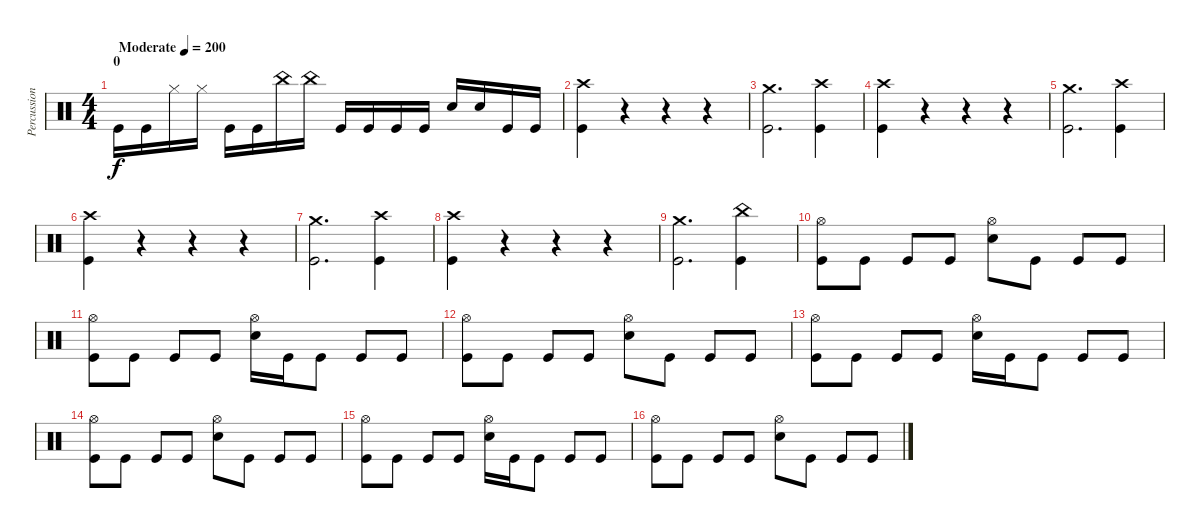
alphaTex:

\track ("Percussion" "Percussion") {instrument percussion}
\staff {score}
\articulation defaults
\ts (4 4)
\section ("" "0")
\tempo (200 "Moderate")
\clef neutral
\ks c "Kick (hit)".16{dy f} "Kick (hit)".16 "Hi-Hat (closed)".16 "Hi-Hat (closed)".16 "Kick (hit)".16 "Kick (hit)".16 "China (hit)".16 "China (hit)".16 "Kick (hit)".16 "Kick (hit)".16 "Kick (hit)".16 "Kick (hit)".16 "Snare (hit) 2".16 "Snare (hit) 2".16 "Kick (hit)".16 "Kick (hit)".16
|
("Crash high (hit)" "Kick (hit)").4 r.4 r.4 r.4 |
("Crash medium (hit)" "Kick (hit)").2{d} ("Crash high (hit)" "Kick (hit)").4 |
("Crash high (hit)" "Kick (hit)").4 r.4 r.4 r.4 |
("Crash medium (hit)" "Kick (hit)").2{d} ("Crash high (hit)" "Kick (hit)").4 |
("Crash high (hit)" "Kick (hit)").4 r.4 r.4 r.4 |
("Crash medium (hit)" "Kick (hit)").2{d} ("Crash high (hit)" "Kick (hit)").4 |
("Crash high (hit)" "Kick (hit)").4 r.4 r.4 r.4 |
("Crash medium (hit)" "Kick (hit)").2{d} ("China (hit)" "Kick (hit)").4 |
("Hi-Hat (open)" "Kick (hit)").8 "Kick (hit)".8 "Kick (hit)".8 "Kick (hit)".8 ("Hi-Hat (open)" "Snare (hit) 2").8 "Kick (hit)".8 "Kick (hit)".8 "Kick (hit)".8 |
("Hi-Hat (open)" "Kick (hit)").8 "Kick (hit)".8 "Kick (hit)".8 "Kick (hit)".8 ("Hi-Hat (open)" "Snare (hit) 2").16 "Kick (hit)".16 "Kick (hit)".8 "Kick (hit)".8 "Kick (hit)".8 |
("Hi-Hat (open)" "Kick (hit)").8 "Kick (hit)".8 "Kick (hit)".8 "Kick (hit)".8 ("Hi-Hat (open)" "Snare (hit) 2").8 "Kick (hit)".8 "Kick (hit)".8 "Kick (hit)".8 |
("Hi-Hat (open)" "Kick (hit)").8 "Kick (hit)".8 "Kick (hit)".8 "Kick (hit)".8 ("Hi-Hat (open)" "Snare (hit) 2").16 "Kick (hit)".16 "Kick (hit)".8 "Kick (hit)".8 "Kick (hit)".8 |
("Hi-Hat (open)" "Kick (hit)").8 "Kick (hit)".8 "Kick (hit)".8 "Kick (hit)".8 ("Hi-Hat (open)" "Snare (hit) 2").8 "Kick (hit)".8 "Kick (hit)".8 "Kick (hit)".8 |
("Hi-Hat (open)" "Kick (hit)").8 "Kick (hit)".8 "Kick (hit)".8 "Kick (hit)".8 ("Hi-Hat (open)" "Snare (hit) 2").16 "Kick (hit)".16 "Kick (hit)".8 "Kick (hit)".8 "Kick (hit)".8 |
("Hi-Hat (open)" "Kick (hit)").8 "Kick (hit)".8 "Kick (hit)".8 "Kick (hit)".8 ("Hi-Hat (open)" "Snare (hit) 2").8 "Kick (hit)".8 "Kick (hit)".8 "Kick (hit)".8
